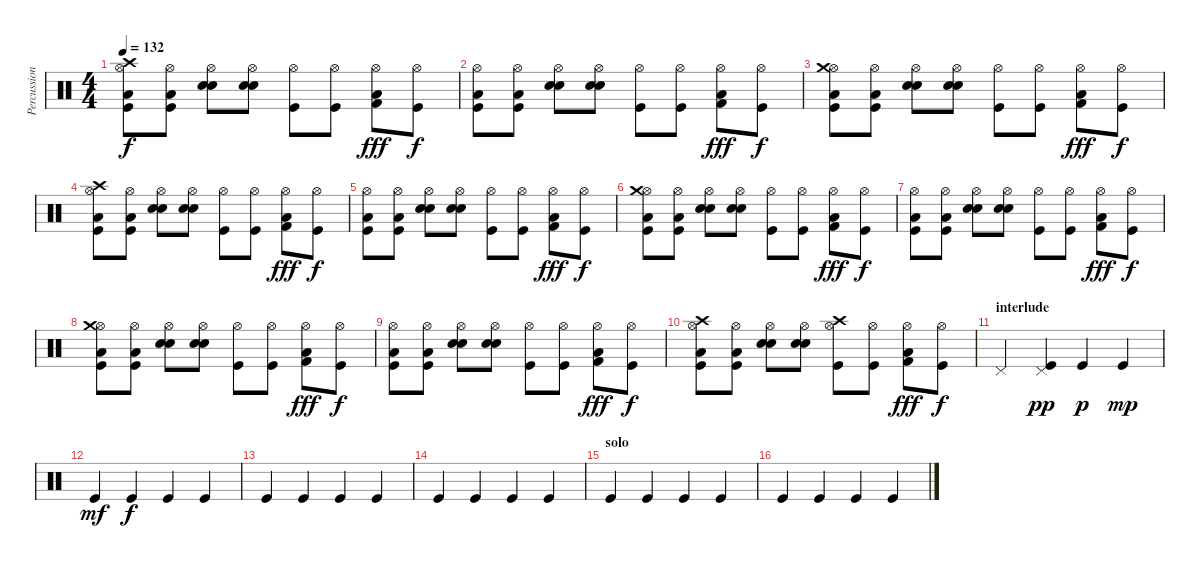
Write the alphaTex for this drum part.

\track ("Percussions" "Percussion") {instrument percussion}
\staff {score}
\articulation defaults
\ts (4 4)
\tempo 132
\clef neutral
\ks c
("Hi-Hat (open)" "Crash high (hit)" "Low Floor Tom (hit)" "Kick (hit)").8{dy f} ("Hi-Hat (open)" "Low Floor Tom (hit)" "Kick (hit)").8 ("Hi-Hat (open)" "Electric Snare (hit)" "Snare (hit) 2").8 ("Hi-Hat (open)" "Electric Snare (hit)" "Snare (hit) 2").8 ("Hi-Hat (open)" "Kick (hit)").8 ("Hi-Hat (open)" "Kick (hit)").8 ("Hi-Hat (open)" "Kick (hit) 2" "Low Floor Tom (hit)").8{dy fff} ("Hi-Hat (open)" "Kick (hit)").8{dy f} |
("Hi-Hat (open)" "Low Floor Tom (hit)" "Kick (hit)").8 ("Hi-Hat (open)" "Low Floor Tom (hit)" "Kick (hit)").8 ("Hi-Hat (open)" "Electric Snare (hit)" "Snare (hit) 2").8 ("Hi-Hat (open)" "Electric Snare (hit)" "Snare (hit) 2").8 ("Hi-Hat (open)" "Kick (hit)").8 ("Hi-Hat (open)" "Kick (hit)").8 ("Hi-Hat (open)" "Kick (hit) 2" "Low Floor Tom (hit)").8{dy fff} ("Hi-Hat (open)" "Kick (hit)").8{dy f} |
("Hi-Hat (open)" "Crash medium (hit)" "Low Floor Tom (hit)" "Kick (hit)").8 ("Hi-Hat (open)" "Low Floor Tom (hit)" "Kick (hit)").8 ("Hi-Hat (open)" "Electric Snare (hit)" "Snare (hit) 2").8 ("Hi-Hat (open)" "Electric Snare (hit)" "Snare (hit) 2").8 ("Hi-Hat (open)" "Kick (hit)").8 ("Hi-Hat (open)" "Kick (hit)").8 ("Hi-Hat (open)" "Kick (hit) 2" "Low Floor Tom (hit)").8{dy fff} ("Hi-Hat (open)" "Kick (hit)").8{dy f} |
("Hi-Hat (open)" "Crash high (hit)" "Low Floor Tom (hit)" "Kick (hit)").8 ("Hi-Hat (open)" "Low Floor Tom (hit)" "Kick (hit)").8 ("Hi-Hat (open)" "Electric Snare (hit)" "Snare (hit) 2").8 ("Hi-Hat (open)" "Electric Snare (hit)" "Snare (hit) 2").8 ("Hi-Hat (open)" "Kick (hit)").8 ("Hi-Hat (open)" "Kick (hit)").8 ("Hi-Hat (open)" "Kick (hit) 2" "Low Floor Tom (hit)").8{dy fff} ("Hi-Hat (open)" "Kick (hit)").8{dy f} |
("Hi-Hat (open)" "Low Floor Tom (hit)" "Kick (hit)").8 ("Hi-Hat (open)" "Low Floor Tom (hit)" "Kick (hit)").8 ("Hi-Hat (open)" "Electric Snare (hit)" "Snare (hit) 2").8 ("Hi-Hat (open)" "Electric Snare (hit)" "Snare (hit) 2").8 ("Hi-Hat (open)" "Kick (hit)").8 ("Hi-Hat (open)" "Kick (hit)").8 ("Hi-Hat (open)" "Kick (hit) 2" "Low Floor Tom (hit)").8{dy fff} ("Hi-Hat (open)" "Kick (hit)").8{dy f} |
("Hi-Hat (open)" "Crash medium (hit)" "Low Floor Tom (hit)" "Kick (hit)").8 ("Hi-Hat (open)" "Low Floor Tom (hit)" "Kick (hit)").8 ("Hi-Hat (open)" "Electric Snare (hit)" "Snare (hit) 2").8 ("Hi-Hat (open)" "Electric Snare (hit)" "Snare (hit) 2").8 ("Hi-Hat (open)" "Kick (hit)").8 ("Hi-Hat (open)" "Kick (hit)").8 ("Hi-Hat (open)" "Kick (hit) 2" "Low Floor Tom (hit)").8{dy fff} ("Hi-Hat (open)" "Kick (hit)").8{dy f} |
("Hi-Hat (open)" "Low Floor Tom (hit)" "Kick (hit)").8 ("Hi-Hat (open)" "Low Floor Tom (hit)" "Kick (hit)").8 ("Hi-Hat (open)" "Electric Snare (hit)" "Snare (hit) 2").8 ("Hi-Hat (open)" "Electric Snare (hit)" "Snare (hit) 2").8 ("Hi-Hat (open)" "Kick (hit)").8 ("Hi-Hat (open)" "Kick (hit)").8 ("Hi-Hat (open)" "Kick (hit) 2" "Low Floor Tom (hit)").8{dy fff} ("Hi-Hat (open)" "Kick (hit)").8{dy f} |
("Hi-Hat (open)" "Crash medium (hit)" "Low Floor Tom (hit)" "Kick (hit)").8 ("Hi-Hat (open)" "Low Floor Tom (hit)" "Kick (hit)").8 ("Hi-Hat (open)" "Electric Snare (hit)" "Snare (hit) 2").8 ("Hi-Hat (open)" "Electric Snare (hit)" "Snare (hit) 2").8 ("Hi-Hat (open)" "Kick (hit)").8 ("Hi-Hat (open)" "Kick (hit)").8 ("Hi-Hat (open)" "Kick (hit) 2" "Low Floor Tom (hit)").8{dy fff} ("Hi-Hat (open)" "Kick (hit)").8{dy f} |
("Hi-Hat (open)" "Low Floor Tom (hit)" "Kick (hit)").8 ("Hi-Hat (open)" "Low Floor Tom (hit)" "Kick (hit)").8 ("Hi-Hat (open)" "Electric Snare (hit)" "Snare (hit) 2").8 ("Hi-Hat (open)" "Electric Snare (hit)" "Snare (hit) 2").8 ("Hi-Hat (open)" "Kick (hit)").8 ("Hi-Hat (open)" "Kick (hit)").8 ("Hi-Hat (open)" "Kick (hit) 2" "Low Floor Tom (hit)").8{dy fff} ("Hi-Hat (open)" "Kick (hit)").8{dy f} |
("Hi-Hat (open)" "Crash high (hit)" "Low Floor Tom (hit)" "Kick (hit)").8 ("Hi-Hat (open)" "Low Floor Tom (hit)" "Kick (hit)").8 ("Hi-Hat (open)" "Electric Snare (hit)" "Snare (hit) 2").8 ("Hi-Hat (open)" "Electric Snare (hit)" "Snare (hit) 2").8 ("Hi-Hat (open)" "Crash high (hit)" "Kick (hit)").8 ("Hi-Hat (open)" "Kick (hit)").8 ("Hi-Hat (open)" "Kick (hit) 2" "Low Floor Tom (hit)").8{dy fff} ("Hi-Hat (open)" "Kick (hit)").8{dy f} |
\section ("" "interlude")
"Pedal Hi-Hat (hit)".4 ("Pedal Hi-Hat (hit)" "Kick (hit)").4{dy pp} "Kick (hit)".4{dy p} "Kick (hit)".4{dy mp} |
"Kick (hit)".4{dy mf} "Kick (hit)".4{dy f} "Kick (hit)".4 "Kick (hit)".4 |
"Kick (hit)".4 "Kick (hit)".4 "Kick (hit)".4 "Kick (hit)".4 |
"Kick (hit)".4 "Kick (hit)".4 "Kick (hit)".4 "Kick (hit)".4 |
\section ("" "solo")
"Kick (hit)".4 "Kick (hit)".4 "Kick (hit)".4 "Kick (hit)".4 |
"Kick (hit)".4 "Kick (hit)".4 "Kick (hit)".4 "Kick (hit)".4
